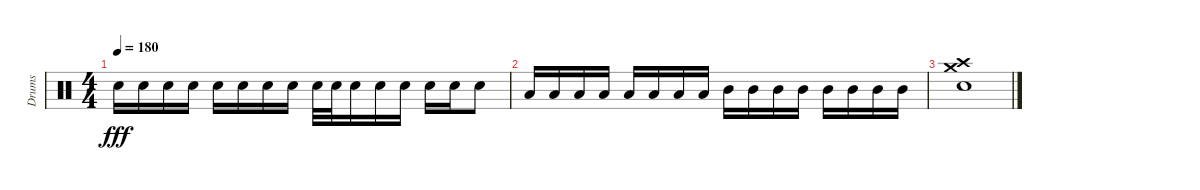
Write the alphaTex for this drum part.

\track ("Drums" "Drums") {instrument percussion}
\staff {score}
\articulation defaults
\ts (4 4)
\tempo 180
\clef neutral
\ks c "Electric Snare (hit)".16{dy fff} "Electric Snare (hit)".16 "Electric Snare (hit)".16 "Electric Snare (hit)".16 "Electric Snare (hit)".16 "Electric Snare (hit)".16 "Electric Snare (hit)".16 "Electric Snare (hit)".16 "Snare (hit) 2".32 "Snare (hit) 2".32 "Snare (hit) 2".16 "Snare (hit) 2".16 "Snare (hit) 2".16 "Snare (hit) 2".16 "Snare (hit) 2".16 "Snare (hit) 2".8
|
"Low Tom (hit)".16 "Low Tom (hit)".16 "Low Tom (hit)".16 "Low Tom (hit)".16 "Low Tom (hit)".16 "Low Tom (hit)".16 "Low Tom (hit)".16 "Low Tom (hit)".16 "Mid Tom (hit)".16 "Mid Tom (hit)".16 "Mid Tom (hit)".16 "Mid Tom (hit)".16 "Mid Tom (hit)".16 "Mid Tom (hit)".16 "Mid Tom (hit)".16 "Mid Tom (hit)".16 |
("Crash high (hit)" "Crash medium (hit)" "Electric Snare (hit)").1
